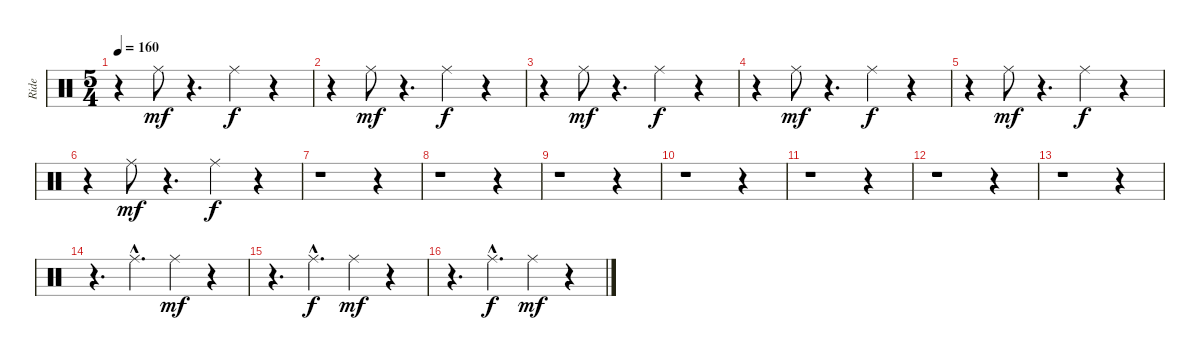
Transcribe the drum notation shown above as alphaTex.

\track ("Ride" "Ride") {instrument percussion}
\staff {score}
\articulation defaults
\ts (5 4)
\tempo 160
\clef neutral
\ks c
r.4{dy f} "Ride (middle)".8{dy mf} r.4{d} "Ride (middle)".4{dy f} r.4 |
r.4 "Ride (middle)".8{dy mf} r.4{d} "Ride (middle)".4{dy f} r.4 |
r.4 "Ride (middle)".8{dy mf} r.4{d} "Ride (middle)".4{dy f} r.4 |
r.4 "Ride (middle)".8{dy mf} r.4{d} "Ride (middle)".4{dy f} r.4 |
r.4 "Ride (middle)".8{dy mf} r.4{d} "Ride (middle)".4{dy f} r.4 |
r.4 "Ride (middle)".8{dy mf} r.4{d} "Ride (middle)".4{dy f} r.4 |
r.1 r.4 |
r.1 r.4 |
r.1 r.4 |
r.1 r.4 |
r.1 r.4 |
r.1 r.4 |
r.1 r.4 |
r.4{d} "Ride (middle)"{hac}.4{d} "Ride (middle)".4{dy mf} r.4 |
r.4{d} "Ride (middle)"{hac}.4{d dy f} "Ride (middle)".4{dy mf} r.4 |
r.4{d} "Ride (middle)"{hac}.4{d dy f} "Ride (middle)".4{dy mf} r.4
